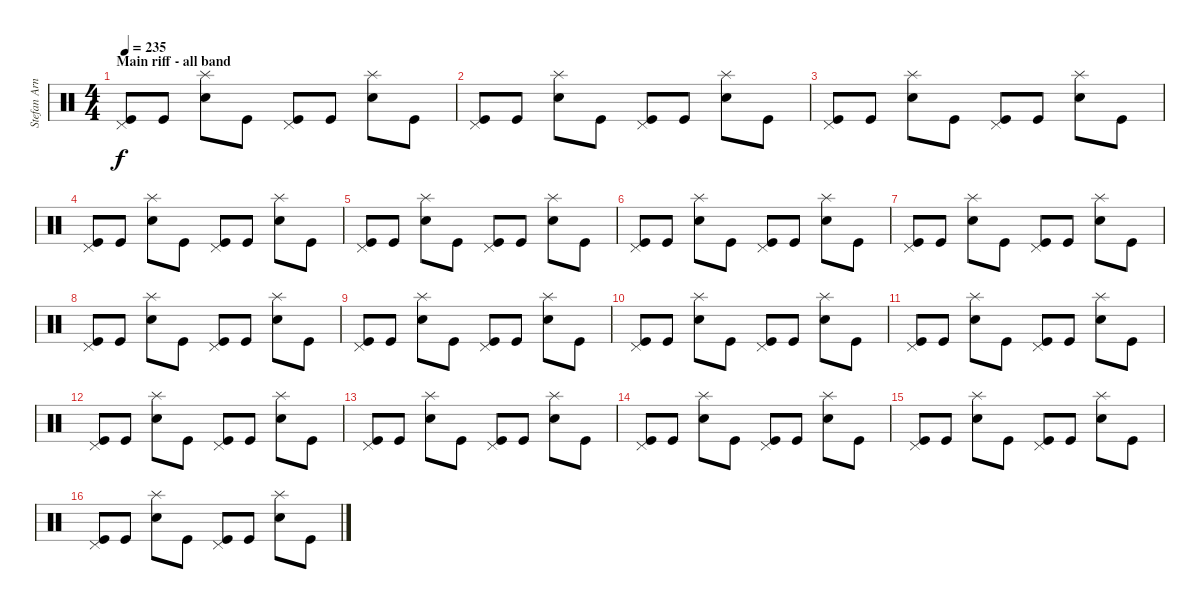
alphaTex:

\track ("Stefan Arnold" "Stefan Arn") {instrument percussion}
\staff {score}
\articulation defaults
\ts (4 4)
\section ("" "Main riff - all band")
\tempo 235
\clef neutral
\ks c
("Kick (hit)" "Pedal Hi-Hat (hit)").8{dy f} "Kick (hit)".8 ("Electric Snare (hit)" "Splash (hit)").8 "Kick (hit)".8 ("Kick (hit)" "Pedal Hi-Hat (hit)").8 "Kick (hit)".8 ("Electric Snare (hit)" "Splash (hit)").8 "Kick (hit)".8 |
("Kick (hit)" "Pedal Hi-Hat (hit)").8 "Kick (hit)".8 ("Electric Snare (hit)" "Splash (hit)").8 "Kick (hit)".8 ("Kick (hit)" "Pedal Hi-Hat (hit)").8 "Kick (hit)".8 ("Electric Snare (hit)" "Splash (hit)").8 "Kick (hit)".8 |
("Kick (hit)" "Pedal Hi-Hat (hit)").8 "Kick (hit)".8 ("Electric Snare (hit)" "Splash (hit)").8 "Kick (hit)".8 ("Kick (hit)" "Pedal Hi-Hat (hit)").8 "Kick (hit)".8 ("Electric Snare (hit)" "Splash (hit)").8 "Kick (hit)".8 |
("Kick (hit)" "Pedal Hi-Hat (hit)").8 "Kick (hit)".8 ("Electric Snare (hit)" "Splash (hit)").8 "Kick (hit)".8 ("Kick (hit)" "Pedal Hi-Hat (hit)").8 "Kick (hit)".8 ("Electric Snare (hit)" "Splash (hit)").8 "Kick (hit)".8 |
("Kick (hit)" "Pedal Hi-Hat (hit)").8 "Kick (hit)".8 ("Electric Snare (hit)" "Splash (hit)").8 "Kick (hit)".8 ("Kick (hit)" "Pedal Hi-Hat (hit)").8 "Kick (hit)".8 ("Electric Snare (hit)" "Splash (hit)").8 "Kick (hit)".8 |
("Kick (hit)" "Pedal Hi-Hat (hit)").8 "Kick (hit)".8 ("Electric Snare (hit)" "Splash (hit)").8 "Kick (hit)".8 ("Kick (hit)" "Pedal Hi-Hat (hit)").8 "Kick (hit)".8 ("Electric Snare (hit)" "Splash (hit)").8 "Kick (hit)".8 |
("Kick (hit)" "Pedal Hi-Hat (hit)").8 "Kick (hit)".8 ("Electric Snare (hit)" "Splash (hit)").8 "Kick (hit)".8 ("Kick (hit)" "Pedal Hi-Hat (hit)").8 "Kick (hit)".8 ("Electric Snare (hit)" "Splash (hit)").8 "Kick (hit)".8 |
("Kick (hit)" "Pedal Hi-Hat (hit)").8 "Kick (hit)".8 ("Electric Snare (hit)" "Splash (hit)").8 "Kick (hit)".8 ("Kick (hit)" "Pedal Hi-Hat (hit)").8 "Kick (hit)".8 ("Electric Snare (hit)" "Splash (hit)").8 "Kick (hit)".8 |
("Kick (hit)" "Pedal Hi-Hat (hit)").8 "Kick (hit)".8 ("Electric Snare (hit)" "Splash (hit)").8 "Kick (hit)".8 ("Kick (hit)" "Pedal Hi-Hat (hit)").8 "Kick (hit)".8 ("Electric Snare (hit)" "Splash (hit)").8 "Kick (hit)".8 |
("Kick (hit)" "Pedal Hi-Hat (hit)").8 "Kick (hit)".8 ("Electric Snare (hit)" "Splash (hit)").8 "Kick (hit)".8 ("Kick (hit)" "Pedal Hi-Hat (hit)").8 "Kick (hit)".8 ("Electric Snare (hit)" "Splash (hit)").8 "Kick (hit)".8 |
("Kick (hit)" "Pedal Hi-Hat (hit)").8 "Kick (hit)".8 ("Electric Snare (hit)" "Splash (hit)").8 "Kick (hit)".8 ("Kick (hit)" "Pedal Hi-Hat (hit)").8 "Kick (hit)".8 ("Electric Snare (hit)" "Splash (hit)").8 "Kick (hit)".8 |
("Kick (hit)" "Pedal Hi-Hat (hit)").8 "Kick (hit)".8 ("Electric Snare (hit)" "Splash (hit)").8 "Kick (hit)".8 ("Kick (hit)" "Pedal Hi-Hat (hit)").8 "Kick (hit)".8 ("Electric Snare (hit)" "Splash (hit)").8 "Kick (hit)".8 |
("Kick (hit)" "Pedal Hi-Hat (hit)").8 "Kick (hit)".8 ("Electric Snare (hit)" "Splash (hit)").8 "Kick (hit)".8 ("Kick (hit)" "Pedal Hi-Hat (hit)").8 "Kick (hit)".8 ("Electric Snare (hit)" "Splash (hit)").8 "Kick (hit)".8 |
("Kick (hit)" "Pedal Hi-Hat (hit)").8 "Kick (hit)".8 ("Electric Snare (hit)" "Splash (hit)").8 "Kick (hit)".8 ("Kick (hit)" "Pedal Hi-Hat (hit)").8 "Kick (hit)".8 ("Electric Snare (hit)" "Splash (hit)").8 "Kick (hit)".8 |
("Kick (hit)" "Pedal Hi-Hat (hit)").8 "Kick (hit)".8 ("Electric Snare (hit)" "Splash (hit)").8 "Kick (hit)".8 ("Kick (hit)" "Pedal Hi-Hat (hit)").8 "Kick (hit)".8 ("Electric Snare (hit)" "Splash (hit)").8 "Kick (hit)".8 |
("Kick (hit)" "Pedal Hi-Hat (hit)").8 "Kick (hit)".8 ("Electric Snare (hit)" "Splash (hit)").8 "Kick (hit)".8 ("Kick (hit)" "Pedal Hi-Hat (hit)").8 "Kick (hit)".8 ("Electric Snare (hit)" "Splash (hit)").8 "Kick (hit)".8
